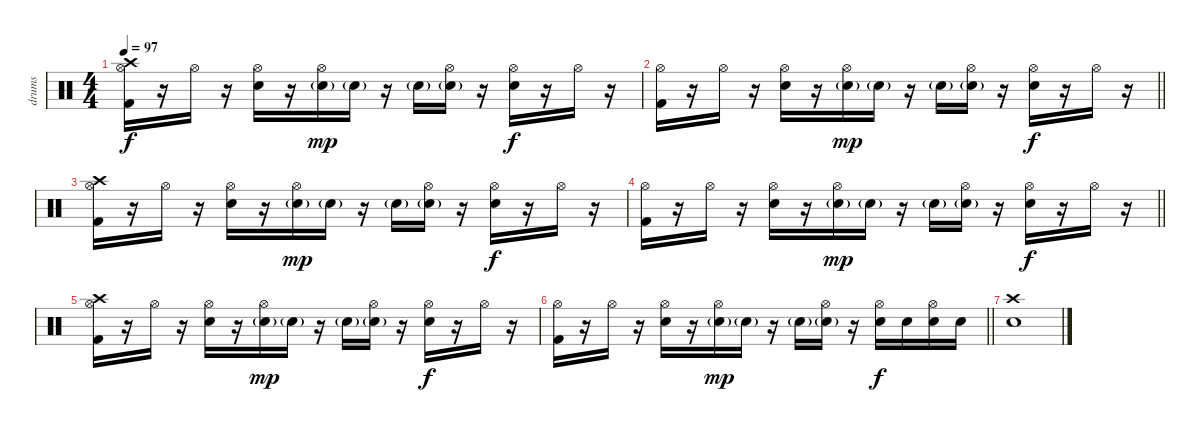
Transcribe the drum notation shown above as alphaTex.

\track ("drums" "drums") {instrument percussion}
\staff {score}
\articulation defaults
\ts (4 4)
\tempo 97
\clef neutral
\ks c
("Kick (hit) 2" "Hi-Hat (open)" "Crash high (hit)").16{dy f} r.16 "Hi-Hat (open)".16 r.16 ("Electric Snare (hit)" "Hi-Hat (open)").16 r.16 ("Electric Snare (hit)"{g} "Hi-Hat (open)").16{dy mp} "Electric Snare (hit)"{g}.16 r.16 "Electric Snare (hit)"{g}.16 ("Electric Snare (hit)"{g} "Hi-Hat (open)").16 r.16 ("Electric Snare (hit)" "Hi-Hat (open)").16{dy f} r.16 "Hi-Hat (open)".16 r.16 |
\barLineRight lightlight
("Kick (hit) 2" "Hi-Hat (open)").16 r.16 "Hi-Hat (open)".16 r.16 ("Electric Snare (hit)" "Hi-Hat (open)").16 r.16 ("Electric Snare (hit)"{g} "Hi-Hat (open)").16{dy mp} "Electric Snare (hit)"{g}.16 r.16 "Electric Snare (hit)"{g}.16 ("Electric Snare (hit)"{g} "Hi-Hat (open)").16 r.16 ("Electric Snare (hit)" "Hi-Hat (open)").16{dy f} r.16 "Hi-Hat (open)".16 r.16 |
("Kick (hit) 2" "Hi-Hat (open)" "Crash high (hit)").16 r.16 "Hi-Hat (open)".16 r.16 ("Electric Snare (hit)" "Hi-Hat (open)").16 r.16 ("Electric Snare (hit)"{g} "Hi-Hat (open)").16{dy mp} "Electric Snare (hit)"{g}.16 r.16 "Electric Snare (hit)"{g}.16 ("Electric Snare (hit)"{g} "Hi-Hat (open)").16 r.16 ("Electric Snare (hit)" "Hi-Hat (open)").16{dy f} r.16 "Hi-Hat (open)".16 r.16 |
\barLineRight lightlight
("Kick (hit) 2" "Hi-Hat (open)").16 r.16 "Hi-Hat (open)".16 r.16 ("Electric Snare (hit)" "Hi-Hat (open)").16 r.16 ("Electric Snare (hit)"{g} "Hi-Hat (open)").16{dy mp} "Electric Snare (hit)"{g}.16 r.16 "Electric Snare (hit)"{g}.16 ("Electric Snare (hit)"{g} "Hi-Hat (open)").16 r.16 ("Electric Snare (hit)" "Hi-Hat (open)").16{dy f} r.16 "Hi-Hat (open)".16 r.16 |
("Kick (hit) 2" "Hi-Hat (open)" "Crash high (hit)").16 r.16 "Hi-Hat (open)".16 r.16 ("Electric Snare (hit)" "Hi-Hat (open)").16 r.16 ("Electric Snare (hit)"{g} "Hi-Hat (open)").16{dy mp} "Electric Snare (hit)"{g}.16 r.16 "Electric Snare (hit)"{g}.16 ("Electric Snare (hit)"{g} "Hi-Hat (open)").16 r.16 ("Electric Snare (hit)" "Hi-Hat (open)").16{dy f} r.16 "Hi-Hat (open)".16 r.16 |
\barLineRight lightlight
("Kick (hit) 2" "Hi-Hat (open)").16 r.16 "Hi-Hat (open)".16 r.16 ("Electric Snare (hit)" "Hi-Hat (open)").16 r.16 ("Electric Snare (hit)"{g} "Hi-Hat (open)").16{dy mp} "Electric Snare (hit)"{g}.16 r.16 "Electric Snare (hit)"{g}.16 ("Electric Snare (hit)"{g} "Hi-Hat (open)").16 r.16 ("Electric Snare (hit)" "Hi-Hat (open)").16{dy f} "Electric Snare (hit)".16 ("Electric Snare (hit)" "Hi-Hat (open)").16 "Electric Snare (hit)".16 |
("Electric Snare (hit)" "Crash high (hit)").1
